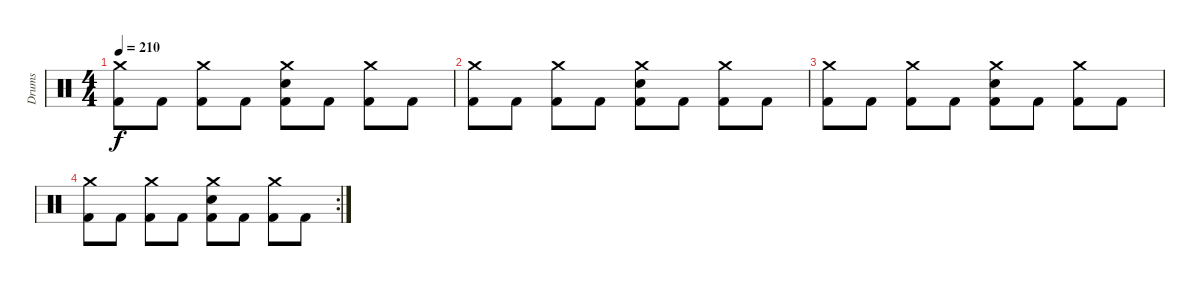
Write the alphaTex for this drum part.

\track ("Drums" "Drums") {instrument percussion}
\staff {score}
\articulation defaults
\ts (4 4)
\tempo 210
\clef neutral
\ks c
("Crash medium (hit)" "Kick (hit) 2").8{dy f} "Kick (hit) 2".8 ("Crash medium (hit)" "Kick (hit) 2").8 "Kick (hit) 2".8 ("Crash medium (hit)" "Electric Snare (hit)" "Kick (hit) 2").8 "Kick (hit) 2".8 ("Crash medium (hit)" "Kick (hit) 2").8 "Kick (hit) 2".8 |
("Crash medium (hit)" "Kick (hit) 2").8 "Kick (hit) 2".8 ("Crash medium (hit)" "Kick (hit) 2").8 "Kick (hit) 2".8 ("Crash medium (hit)" "Electric Snare (hit)" "Kick (hit) 2").8 "Kick (hit) 2".8 ("Crash medium (hit)" "Kick (hit) 2").8 "Kick (hit) 2".8 |
("Crash medium (hit)" "Kick (hit) 2").8 "Kick (hit) 2".8 ("Crash medium (hit)" "Kick (hit) 2").8 "Kick (hit) 2".8 ("Crash medium (hit)" "Electric Snare (hit)" "Kick (hit) 2").8 "Kick (hit) 2".8 ("Crash medium (hit)" "Kick (hit) 2").8 "Kick (hit) 2".8 |
\rc 2
("Crash medium (hit)" "Kick (hit) 2").8 "Kick (hit) 2".8 ("Crash medium (hit)" "Kick (hit) 2").8 "Kick (hit) 2".8 ("Crash medium (hit)" "Electric Snare (hit)" "Kick (hit) 2").8 "Kick (hit) 2".8 ("Crash medium (hit)" "Kick (hit) 2").8 "Kick (hit) 2".8
